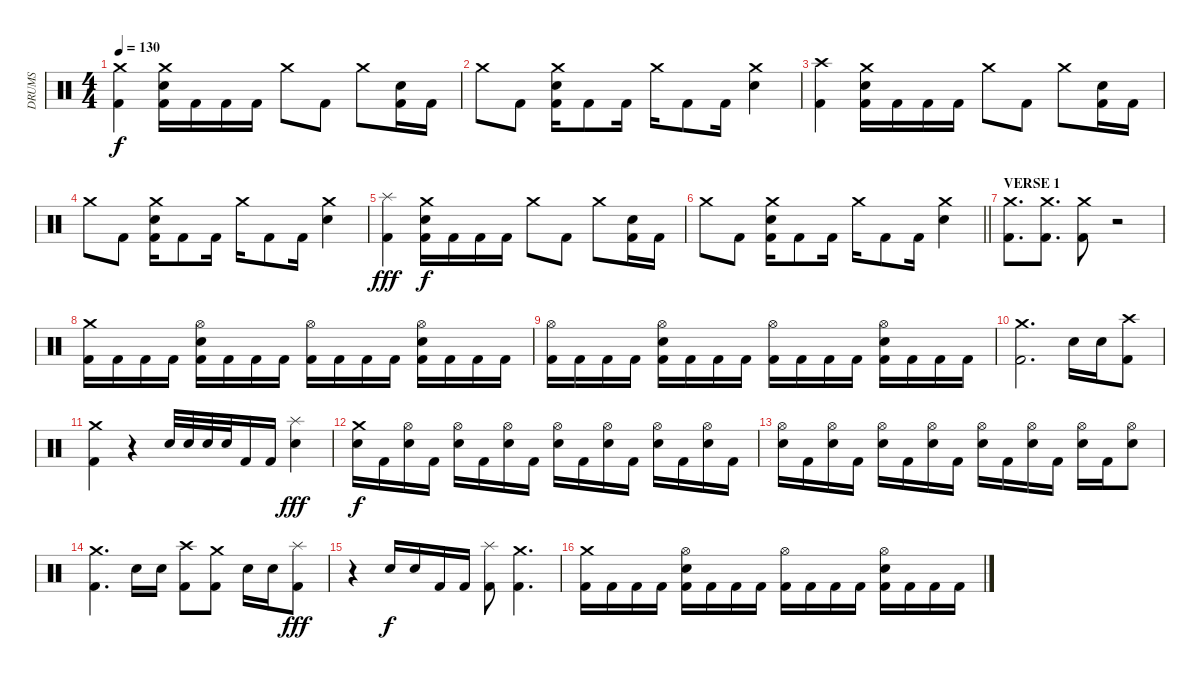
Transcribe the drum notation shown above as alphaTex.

\track ("DRUMS" "DRUMS") {instrument percussion}
\staff {score}
\articulation defaults
\ts (4 4)
\tempo 130
\clef neutral
\ks c
("Crash medium (hit)" "Kick (hit) 2").4{dy f} ("Crash medium (hit)" "Electric Snare (hit)" "Kick (hit) 2").16 "Kick (hit) 2".16 "Kick (hit) 2".16 "Kick (hit) 2".16 "Crash medium (hit)".8 "Kick (hit) 2".8 "Crash medium (hit)".8 ("Electric Snare (hit)" "Kick (hit) 2").16 "Kick (hit) 2".16 |
"Crash medium (hit)".8 "Kick (hit) 2".8 ("Crash medium (hit)" "Electric Snare (hit)" "Kick (hit) 2").16 "Kick (hit) 2".8 "Kick (hit) 2".16 "Crash medium (hit)".16 "Kick (hit) 2".8 "Kick (hit) 2".16 ("Crash medium (hit)" "Electric Snare (hit)").4 |
("Crash high (hit)" "Kick (hit) 2").4 ("Crash medium (hit)" "Electric Snare (hit)" "Kick (hit) 2").16 "Kick (hit) 2".16 "Kick (hit) 2".16 "Kick (hit) 2".16 "Crash medium (hit)".8 "Kick (hit) 2".8 "Crash medium (hit)".8 ("Electric Snare (hit)" "Kick (hit) 2").16 "Kick (hit) 2".16 |
"Crash medium (hit)".8 "Kick (hit) 2".8 ("Crash medium (hit)" "Electric Snare (hit)" "Kick (hit) 2").16 "Kick (hit) 2".8 "Kick (hit) 2".16 "Crash medium (hit)".16 "Kick (hit) 2".8 "Kick (hit) 2".16 ("Crash medium (hit)" "Electric Snare (hit)").4 |
("Splash (hit)" "Kick (hit) 2").4{dy fff} ("Crash medium (hit)" "Electric Snare (hit)" "Kick (hit) 2").16{dy f} "Kick (hit) 2".16 "Kick (hit) 2".16 "Kick (hit) 2".16 "Crash medium (hit)".8 "Kick (hit) 2".8 "Crash medium (hit)".8 ("Electric Snare (hit)" "Kick (hit) 2").16 "Kick (hit) 2".16 |
\barLineRight lightlight "Crash medium (hit)".8 "Kick (hit) 2".8
("Crash medium (hit)" "Electric Snare (hit)" "Kick (hit) 2").16 "Kick (hit) 2".8 "Kick (hit) 2".16 "Crash medium (hit)".16 "Kick (hit) 2".8 "Kick (hit) 2".16 ("Crash medium (hit)" "Electric Snare (hit)").4 |
\section ("" "VERSE 1")
("Crash medium (hit)" "Kick (hit) 2").8{d} ("Crash medium (hit)" "Kick (hit) 2").8{d} ("Crash medium (hit)" "Kick (hit) 2").8 r.2 |
("Crash medium (hit)" "Kick (hit) 2").16 "Kick (hit) 2".16 "Kick (hit) 2".16 "Kick (hit) 2".16 ("Hi-Hat (open)" "Electric Snare (hit)" "Kick (hit) 2").16 "Kick (hit) 2".16 "Kick (hit) 2".16 "Kick (hit) 2".16 ("Hi-Hat (open)" "Kick (hit) 2").16 "Kick (hit) 2".16 "Kick (hit) 2".16 "Kick (hit) 2".16 ("Hi-Hat (open)" "Electric Snare (hit)" "Kick (hit) 2").16 "Kick (hit) 2".16 "Kick (hit) 2".16 "Kick (hit) 2".16 |
("Hi-Hat (open)" "Kick (hit) 2").16 "Kick (hit) 2".16 "Kick (hit) 2".16 "Kick (hit) 2".16 ("Hi-Hat (open)" "Electric Snare (hit)" "Kick (hit) 2").16 "Kick (hit) 2".16 "Kick (hit) 2".16 "Kick (hit) 2".16 ("Hi-Hat (open)" "Kick (hit) 2").16 "Kick (hit) 2".16 "Kick (hit) 2".16 "Kick (hit) 2".16 ("Hi-Hat (open)" "Electric Snare (hit)" "Kick (hit) 2").16 "Kick (hit) 2".16 "Kick (hit) 2".16 "Kick (hit) 2".16 |
("Crash medium (hit)" "Kick (hit) 2").2{d} "Electric Snare (hit)".16 "Electric Snare (hit)".16 ("Crash high (hit)" "Kick (hit) 2").8 |
("Crash medium (hit)" "Kick (hit) 2").4 r.4 "Electric Snare (hit)".32 "Electric Snare (hit)".32 "Electric Snare (hit)".32 "Electric Snare (hit)".32 "Kick (hit) 2".16 "Kick (hit) 2".16 ("Splash (hit)" "Electric Snare (hit)").4{dy fff} |
("Crash medium (hit)" "Electric Snare (hit)").16{dy f} "Kick (hit) 2".16 ("Hi-Hat (open)" "Electric Snare (hit)").16 "Kick (hit) 2".16 ("Hi-Hat (open)" "Electric Snare (hit)").16 "Kick (hit) 2".16 ("Hi-Hat (open)" "Electric Snare (hit)").16 "Kick (hit) 2".16 ("Hi-Hat (open)" "Electric Snare (hit)").16 "Kick (hit) 2".16 ("Hi-Hat (open)" "Electric Snare (hit)").16 "Kick (hit) 2".16 ("Hi-Hat (open)" "Electric Snare (hit)").16 "Kick (hit) 2".16 ("Hi-Hat (open)" "Electric Snare (hit)").16 "Kick (hit) 2".16 |
("Hi-Hat (open)" "Electric Snare (hit)").16 "Kick (hit) 2".16 ("Hi-Hat (open)" "Electric Snare (hit)").16 "Kick (hit) 2".16 ("Hi-Hat (open)" "Electric Snare (hit)").16 "Kick (hit) 2".16 ("Hi-Hat (open)" "Electric Snare (hit)").16 "Kick (hit) 2".16 ("Hi-Hat (open)" "Electric Snare (hit)").16 "Kick (hit) 2".16 ("Hi-Hat (open)" "Electric Snare (hit)").16 "Kick (hit) 2".16 ("Hi-Hat (open)" "Electric Snare (hit)").16 "Kick (hit) 2".16 ("Hi-Hat (open)" "Electric Snare (hit)").8 |
("Crash medium (hit)" "Kick (hit) 2").4{d} "Electric Snare (hit)".16 "Electric Snare (hit)".16 ("Crash high (hit)" "Kick (hit) 2").8 ("Crash medium (hit)" "Kick (hit) 2").8 "Electric Snare (hit)".16 "Electric Snare (hit)".16 ("Splash (hit)" "Kick (hit) 2").8{dy fff} |
r.4 "Electric Snare (hit)".16{dy f} "Electric Snare (hit)".16 "Kick (hit) 2".16 "Kick (hit) 2".16 ("Splash (hit)" "Kick (hit) 2").8 ("Crash medium (hit)" "Kick (hit) 2").4{d} |
("Crash medium (hit)" "Kick (hit) 2").16 "Kick (hit) 2".16 "Kick (hit) 2".16 "Kick (hit) 2".16 ("Hi-Hat (open)" "Electric Snare (hit)" "Kick (hit) 2").16 "Kick (hit) 2".16 "Kick (hit) 2".16 "Kick (hit) 2".16 ("Hi-Hat (open)" "Kick (hit) 2").16 "Kick (hit) 2".16 "Kick (hit) 2".16 "Kick (hit) 2".16 ("Hi-Hat (open)" "Electric Snare (hit)" "Kick (hit) 2").16 "Kick (hit) 2".16 "Kick (hit) 2".16 "Kick (hit) 2".16
